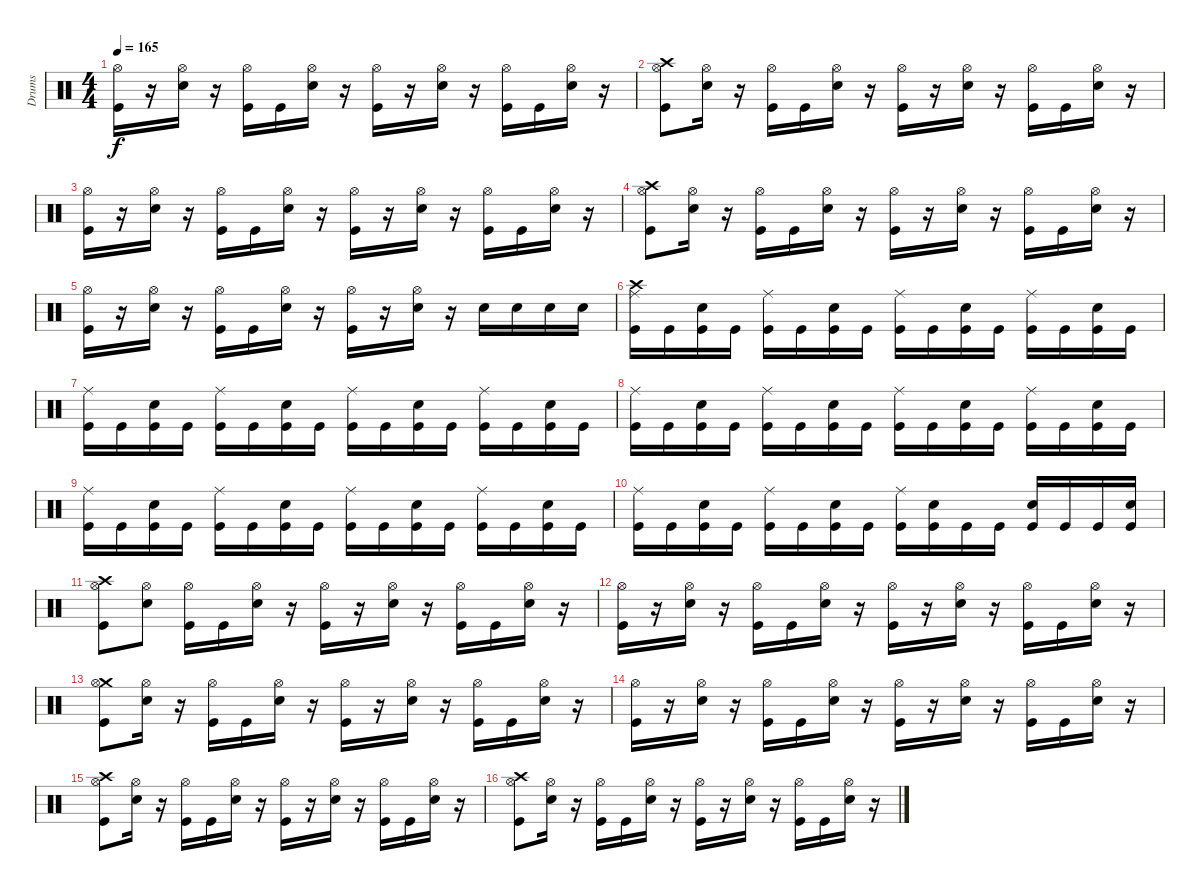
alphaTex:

\track ("Drums" "Drums") {instrument percussion}
\staff {score}
\articulation defaults
\ts (4 4)
\tempo 165
\clef neutral
\ks c
("Hi-Hat (open)" "Kick (hit)").16{dy f} r.16 ("Electric Snare (hit)" "Hi-Hat (open)").16 r.16 ("Kick (hit)" "Hi-Hat (open)").16 "Kick (hit)".16 ("Electric Snare (hit)" "Hi-Hat (open)").16 r.16 ("Kick (hit)" "Hi-Hat (open)").16 r.16 ("Electric Snare (hit)" "Hi-Hat (open)").16 r.16 ("Kick (hit)" "Hi-Hat (open)").16 "Kick (hit)".16 ("Electric Snare (hit)" "Hi-Hat (open)").16 r.16 |
("Crash high (hit)" "Hi-Hat (open)" "Kick (hit)").8 ("Electric Snare (hit)" "Hi-Hat (open)").16 r.16 ("Kick (hit)" "Hi-Hat (open)").16 "Kick (hit)".16 ("Electric Snare (hit)" "Hi-Hat (open)").16 r.16 ("Kick (hit)" "Hi-Hat (open)").16 r.16 ("Electric Snare (hit)" "Hi-Hat (open)").16 r.16 ("Kick (hit)" "Hi-Hat (open)").16 "Kick (hit)".16 ("Electric Snare (hit)" "Hi-Hat (open)").16 r.16 |
("Hi-Hat (open)" "Kick (hit)").16 r.16 ("Electric Snare (hit)" "Hi-Hat (open)").16 r.16 ("Kick (hit)" "Hi-Hat (open)").16 "Kick (hit)".16 ("Electric Snare (hit)" "Hi-Hat (open)").16 r.16 ("Kick (hit)" "Hi-Hat (open)").16 r.16 ("Electric Snare (hit)" "Hi-Hat (open)").16 r.16 ("Kick (hit)" "Hi-Hat (open)").16 "Kick (hit)".16 ("Electric Snare (hit)" "Hi-Hat (open)").16 r.16 |
("Crash high (hit)" "Hi-Hat (open)" "Kick (hit)").8 ("Electric Snare (hit)" "Hi-Hat (open)").16 r.16 ("Kick (hit)" "Hi-Hat (open)").16 "Kick (hit)".16 ("Electric Snare (hit)" "Hi-Hat (open)").16 r.16 ("Kick (hit)" "Hi-Hat (open)").16 r.16 ("Electric Snare (hit)" "Hi-Hat (open)").16 r.16 ("Kick (hit)" "Hi-Hat (open)").16 "Kick (hit)".16 ("Electric Snare (hit)" "Hi-Hat (open)").16 r.16 |
("Hi-Hat (open)" "Kick (hit)").16 r.16 ("Electric Snare (hit)" "Hi-Hat (open)").16 r.16 ("Kick (hit)" "Hi-Hat (open)").16 "Kick (hit)".16 ("Electric Snare (hit)" "Hi-Hat (open)").16 r.16 ("Kick (hit)" "Hi-Hat (open)").16 r.16 ("Hi-Hat (open)" "Electric Snare (hit)").16 r.16 "Electric Snare (hit)".16 "Electric Snare (hit)".16 "Electric Snare (hit)".16 "Electric Snare (hit)".16 |
("Crash high (hit)" "Ride (middle)" "Kick (hit)").16 "Kick (hit)".16 ("Electric Snare (hit)" "Kick (hit)").16 "Kick (hit)".16 ("Ride (middle)" "Kick (hit)").16 "Kick (hit)".16 ("Electric Snare (hit)" "Kick (hit)").16 "Kick (hit)".16 ("Ride (middle)" "Kick (hit)").16 "Kick (hit)".16 ("Electric Snare (hit)" "Kick (hit)").16 "Kick (hit)".16 ("Ride (middle)" "Kick (hit)").16 "Kick (hit)".16 ("Electric Snare (hit)" "Kick (hit)").16 "Kick (hit)".16 |
("Ride (middle)" "Kick (hit)").16{volume 14 balance 8} "Kick (hit)".16 ("Electric Snare (hit)" "Kick (hit)").16 "Kick (hit)".16 ("Ride (middle)" "Kick (hit)").16 "Kick (hit)".16 ("Electric Snare (hit)" "Kick (hit)").16 "Kick (hit)".16 ("Ride (middle)" "Kick (hit)").16 "Kick (hit)".16 ("Electric Snare (hit)" "Kick (hit)").16 "Kick (hit)".16 ("Ride (middle)" "Kick (hit)").16 "Kick (hit)".16 ("Electric Snare (hit)" "Kick (hit)").16 "Kick (hit)".16 |
("Ride (middle)" "Kick (hit)").16 "Kick (hit)".16 ("Electric Snare (hit)" "Kick (hit)").16 "Kick (hit)".16 ("Ride (middle)" "Kick (hit)").16 "Kick (hit)".16 ("Electric Snare (hit)" "Kick (hit)").16 "Kick (hit)".16 ("Ride (middle)" "Kick (hit)").16 "Kick (hit)".16 ("Electric Snare (hit)" "Kick (hit)").16 "Kick (hit)".16 ("Ride (middle)" "Kick (hit)").16 "Kick (hit)".16 ("Electric Snare (hit)" "Kick (hit)").16 "Kick (hit)".16 |
("Ride (middle)" "Kick (hit)").16 "Kick (hit)".16 ("Electric Snare (hit)" "Kick (hit)").16 "Kick (hit)".16 ("Ride (middle)" "Kick (hit)").16 "Kick (hit)".16 ("Electric Snare (hit)" "Kick (hit)").16 "Kick (hit)".16 ("Ride (middle)" "Kick (hit)").16 "Kick (hit)".16 ("Electric Snare (hit)" "Kick (hit)").16 "Kick (hit)".16 ("Ride (middle)" "Kick (hit)").16 "Kick (hit)".16 ("Electric Snare (hit)" "Kick (hit)").16 "Kick (hit)".16 |
("Ride (middle)" "Kick (hit)").16 "Kick (hit)".16 ("Electric Snare (hit)" "Kick (hit)").16 "Kick (hit)".16 ("Ride (middle)" "Kick (hit)").16 "Kick (hit)".16 ("Electric Snare (hit)" "Kick (hit)").16 "Kick (hit)".16 ("Ride (middle)" "Kick (hit)").16 ("Electric Snare (hit)" "Kick (hit)").16 "Kick (hit)".16 "Kick (hit)".16 ("Electric Snare (hit)" "Kick (hit)").16 "Kick (hit)".16 "Kick (hit)".16 ("Electric Snare (hit)" "Kick (hit)").16 |
("Crash high (hit)" "Hi-Hat (open)" "Kick (hit)").8 ("Electric Snare (hit)" "Hi-Hat (open)").8 ("Kick (hit)" "Hi-Hat (open)").16 "Kick (hit)".16 ("Electric Snare (hit)" "Hi-Hat (open)").16 r.16 ("Kick (hit)" "Hi-Hat (open)").16 r.16 ("Electric Snare (hit)" "Hi-Hat (open)").16 r.16 ("Kick (hit)" "Hi-Hat (open)").16 "Kick (hit)".16 ("Electric Snare (hit)" "Hi-Hat (open)").16 r.16 |
("Hi-Hat (open)" "Kick (hit)").16 r.16 ("Electric Snare (hit)" "Hi-Hat (open)").16 r.16 ("Kick (hit)" "Hi-Hat (open)").16 "Kick (hit)".16 ("Electric Snare (hit)" "Hi-Hat (open)").16 r.16 ("Kick (hit)" "Hi-Hat (open)").16 r.16 ("Electric Snare (hit)" "Hi-Hat (open)").16 r.16 ("Kick (hit)" "Hi-Hat (open)").16 "Kick (hit)".16 ("Electric Snare (hit)" "Hi-Hat (open)").16 r.16 |
("Crash medium (hit)" "Hi-Hat (open)" "Kick (hit)").8 ("Electric Snare (hit)" "Hi-Hat (open)").16 r.16 ("Kick (hit)" "Hi-Hat (open)").16 "Kick (hit)".16 ("Electric Snare (hit)" "Hi-Hat (open)").16 r.16 ("Kick (hit)" "Hi-Hat (open)").16 r.16 ("Electric Snare (hit)" "Hi-Hat (open)").16 r.16 ("Kick (hit)" "Hi-Hat (open)").16 "Kick (hit)".16 ("Electric Snare (hit)" "Hi-Hat (open)").16 r.16 |
("Hi-Hat (open)" "Kick (hit)").16 r.16 ("Electric Snare (hit)" "Hi-Hat (open)").16 r.16 ("Kick (hit)" "Hi-Hat (open)").16 "Kick (hit)".16 ("Electric Snare (hit)" "Hi-Hat (open)").16 r.16 ("Kick (hit)" "Hi-Hat (open)").16 r.16 ("Electric Snare (hit)" "Hi-Hat (open)").16 r.16 ("Kick (hit)" "Hi-Hat (open)").16 "Kick (hit)".16 ("Electric Snare (hit)" "Hi-Hat (open)").16 r.16 |
("Crash high (hit)" "Hi-Hat (open)" "Kick (hit)").8 ("Electric Snare (hit)" "Hi-Hat (open)").16 r.16 ("Kick (hit)" "Hi-Hat (open)").16 "Kick (hit)".16 ("Electric Snare (hit)" "Hi-Hat (open)").16 r.16 ("Kick (hit)" "Hi-Hat (open)").16 r.16 ("Electric Snare (hit)" "Hi-Hat (open)").16 r.16 ("Kick (hit)" "Hi-Hat (open)").16 "Kick (hit)".16 ("Electric Snare (hit)" "Hi-Hat (open)").16 r.16 |
("Crash high (hit)" "Hi-Hat (open)" "Kick (hit)").8 ("Electric Snare (hit)" "Hi-Hat (open)").16 r.16 ("Kick (hit)" "Hi-Hat (open)").16 "Kick (hit)".16 ("Electric Snare (hit)" "Hi-Hat (open)").16 r.16 ("Kick (hit)" "Hi-Hat (open)").16 r.16 ("Electric Snare (hit)" "Hi-Hat (open)").16 r.16 ("Kick (hit)" "Hi-Hat (open)").16 "Kick (hit)".16 ("Electric Snare (hit)" "Hi-Hat (open)").16 r.16
